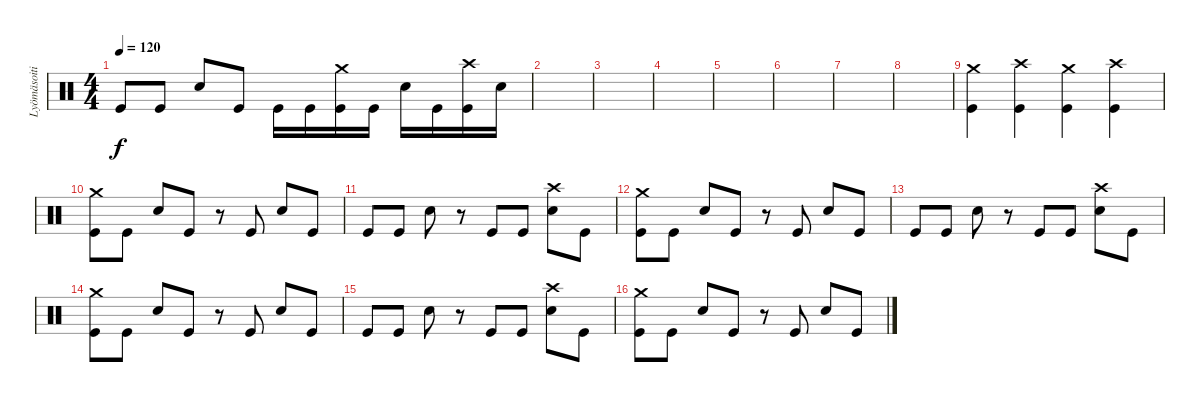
\track ("Lyömäsoitin" "Lyömäsoiti") {instrument percussion}
\staff {score}
\articulation defaults
\ts (4 4)
\tempo 120
\clef neutral
\ks c "Kick (hit)".8{dy f} "Kick (hit)".8 "Electric Snare (hit)".8 "Kick (hit)".8 "Kick (hit)".16 "Kick (hit)".16
("Kick (hit)" "Crash medium (hit)").16 "Kick (hit)".16 "Electric Snare (hit)".16 "Kick (hit)".16 ("Kick (hit)" "Crash high (hit)").16 "Electric Snare (hit)".16 |
|
|
|
|
|
|
|
("Crash medium (hit)" "Kick (hit)").4 ("Crash high (hit)" "Kick (hit)").4 ("Crash medium (hit)" "Kick (hit)").4 ("Crash high (hit)" "Kick (hit)").4 |
("Kick (hit)" "Crash medium (hit)").8 "Kick (hit)".8 "Snare (hit) 2".8 "Kick (hit)".8 r.8 "Kick (hit)".8 "Snare (hit) 2".8 "Kick (hit)".8 |
"Kick (hit)".8 "Kick (hit)".8 "Snare (hit) 2".8 r.8 "Kick (hit)".8 "Kick (hit)".8 ("Snare (hit) 2" "Crash high (hit)").8 "Kick (hit)".8 |
("Kick (hit)" "Crash medium (hit)").8 "Kick (hit)".8 "Snare (hit) 2".8 "Kick (hit)".8 r.8 "Kick (hit)".8 "Snare (hit) 2".8 "Kick (hit)".8 |
"Kick (hit)".8 "Kick (hit)".8 "Snare (hit) 2".8 r.8 "Kick (hit)".8 "Kick (hit)".8 ("Snare (hit) 2" "Crash high (hit)").8 "Kick (hit)".8 |
("Kick (hit)" "Crash medium (hit)").8 "Kick (hit)".8 "Snare (hit) 2".8 "Kick (hit)".8 r.8 "Kick (hit)".8 "Snare (hit) 2".8 "Kick (hit)".8 |
"Kick (hit)".8 "Kick (hit)".8 "Snare (hit) 2".8 r.8 "Kick (hit)".8 "Kick (hit)".8 ("Snare (hit) 2" "Crash high (hit)").8 "Kick (hit)".8 |
("Kick (hit)" "Crash medium (hit)").8 "Kick (hit)".8 "Snare (hit) 2".8 "Kick (hit)".8 r.8 "Kick (hit)".8 "Snare (hit) 2".8 "Kick (hit)".8
